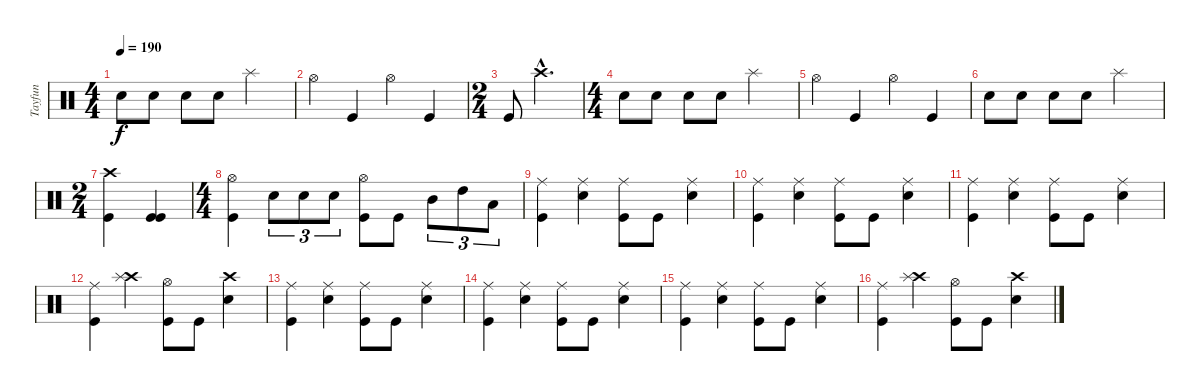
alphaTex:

\track ("Tayfun" "Tayfun") {instrument percussion}
\staff {score}
\articulation defaults
\ts (4 4)
\tempo 190
\clef neutral
\ks c "Snare (hit) 2".8{dy f} "Snare (hit) 2".8 "Snare (hit) 2".8 "Snare (hit) 2".8 "Splash (hit)".2
|
"Hi-Hat (open)".4 "Kick (hit)".4 "Hi-Hat (open)".4 "Kick (hit)".4 |
\ts (2 4)
"Kick (hit)".8 "Crash high (hit)"{hac}.4{d} |
\ts (4 4)
"Snare (hit) 2".8 "Snare (hit) 2".8 "Snare (hit) 2".8 "Snare (hit) 2".8 "Splash (hit)".2 |
"Hi-Hat (open)".4 "Kick (hit)".4 "Hi-Hat (open)".4 "Kick (hit)".4 |
"Snare (hit) 2".8 "Snare (hit) 2".8 "Snare (hit) 2".8 "Snare (hit) 2".8 "Splash (hit)".2 |
\ts (2 4)
("Crash high (hit)" "Kick (hit)").4 ("Kick (hit)" "Kick (hit)").4 |
\ts (4 4)
("Hi-Hat (open)" "Kick (hit)").4 "Snare (hit) 2".8{tu (3 2)} "Snare (hit) 2".8{tu (3 2)} "Snare (hit) 2".8{tu (3 2)} ("Hi-Hat (open)" "Kick (hit)").8 "Kick (hit)".8 "Mid Tom (hit)".8{tu (3 2)} "High Tom (hit)".8{tu (3 2)} "Low Tom (hit)".8{tu (3 2)} |
("Ride (middle)" "Kick (hit)").4 ("Ride (middle)" "Snare (hit) 2").4 ("Ride (middle)" "Kick (hit)").8 "Kick (hit)".8 ("Ride (middle)" "Snare (hit) 2").4 |
("Ride (middle)" "Kick (hit)").4 ("Ride (middle)" "Snare (hit) 2").4 ("Ride (middle)" "Kick (hit)").8 "Kick (hit)".8 ("Ride (middle)" "Snare (hit) 2").4 |
("Ride (middle)" "Kick (hit)").4 ("Ride (middle)" "Snare (hit) 2").4 ("Ride (middle)" "Kick (hit)").8 "Kick (hit)".8 ("Ride (middle)" "Snare (hit) 2").4 |
("Ride (middle)" "Kick (hit)").4 ("Crash high (hit)" "Splash (hit)").4 ("Hi-Hat (open)" "Kick (hit)").8 "Kick (hit)".8 ("Crash high (hit)" "Snare (hit) 2").4 |
("Ride (middle)" "Kick (hit)").4 ("Ride (middle)" "Snare (hit) 2").4 ("Ride (middle)" "Kick (hit)").8 "Kick (hit)".8 ("Ride (middle)" "Snare (hit) 2").4 |
("Ride (middle)" "Kick (hit)").4 ("Ride (middle)" "Snare (hit) 2").4 ("Ride (middle)" "Kick (hit)").8 "Kick (hit)".8 ("Ride (middle)" "Snare (hit) 2").4 |
("Ride (middle)" "Kick (hit)").4 ("Ride (middle)" "Snare (hit) 2").4 ("Ride (middle)" "Kick (hit)").8 "Kick (hit)".8 ("Ride (middle)" "Snare (hit) 2").4 |
("Ride (middle)" "Kick (hit)").4 ("Crash high (hit)" "Splash (hit)").4 ("Hi-Hat (open)" "Kick (hit)").8 "Kick (hit)".8 ("Crash high (hit)" "Snare (hit) 2").4
